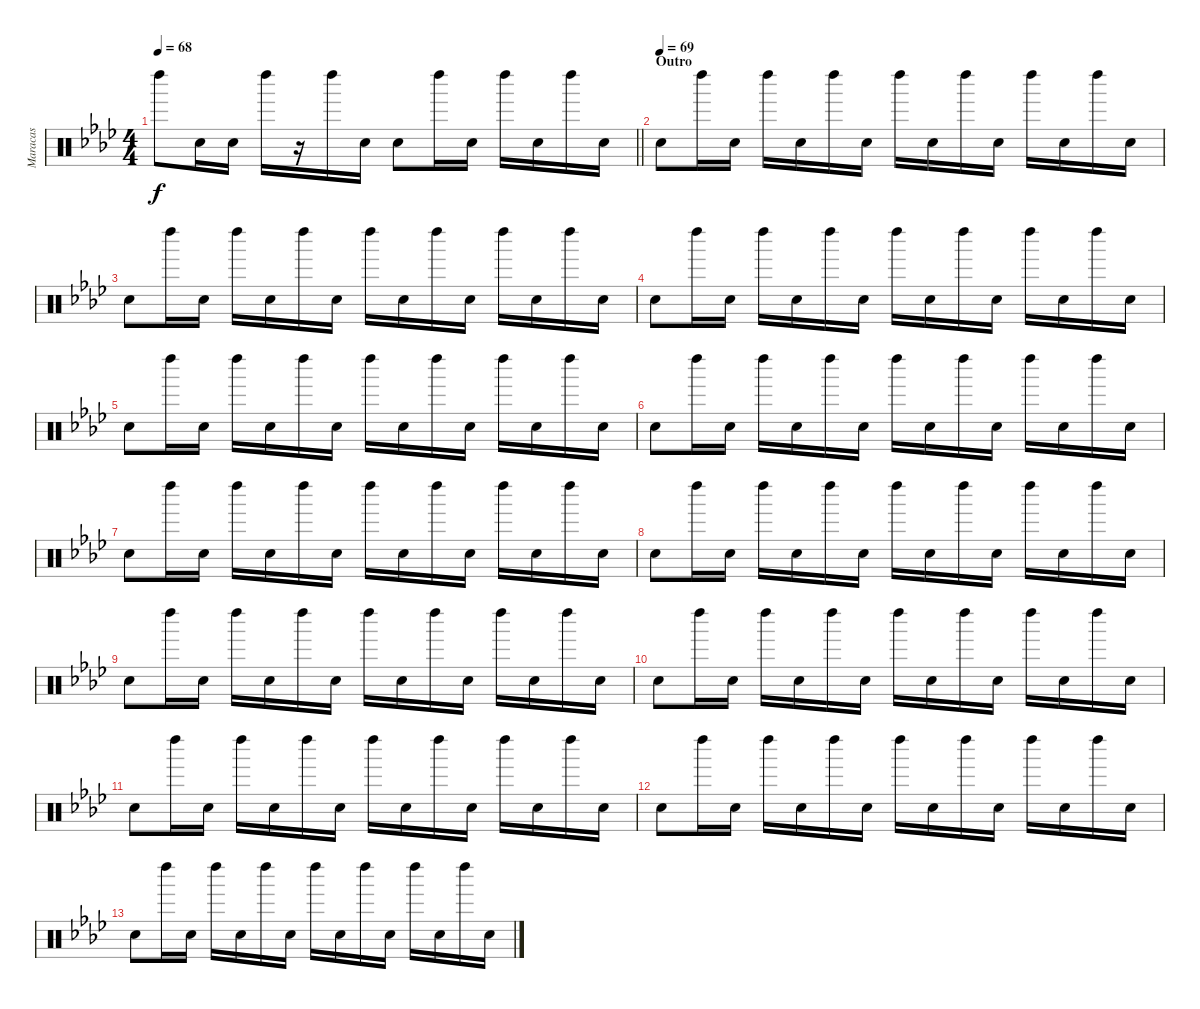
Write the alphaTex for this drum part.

\track ("Maracas" "Maracas") {instrument percussion}
\staff {score}
\articulation defaults
\ts (4 4)
\tempo 68
\clef neutral
\barLineRight lightlight
\ks ab "Left Maraca (hit)".8{dy f} "Snare (hit)".16 "Snare (hit)".16 "Left Maraca (hit)".16
r.16 "Left Maraca (hit)".16 "Snare (hit)".16 "Snare (hit)".8 "Left Maraca (hit)".16 "Snare (hit)".16 "Left Maraca (hit)".16 "Snare (hit)".16 "Left Maraca (hit)".16 "Snare (hit)".16 |
\section ("" "Outro")
\tempo (69)
"Snare (hit)".8 "Left Maraca (hit)".16 "Snare (hit)".16 "Left Maraca (hit)".16 "Snare (hit)".16 "Left Maraca (hit)".16 "Snare (hit)".16 "Left Maraca (hit)".16 "Snare (hit)".16 "Left Maraca (hit)".16 "Snare (hit)".16 "Left Maraca (hit)".16 "Snare (hit)".16 "Left Maraca (hit)".16 "Snare (hit)".16 |
"Snare (hit)".8 "Left Maraca (hit)".16 "Snare (hit)".16 "Left Maraca (hit)".16 "Snare (hit)".16 "Left Maraca (hit)".16 "Snare (hit)".16 "Left Maraca (hit)".16 "Snare (hit)".16 "Left Maraca (hit)".16 "Snare (hit)".16 "Left Maraca (hit)".16 "Snare (hit)".16 "Left Maraca (hit)".16 "Snare (hit)".16 |
"Snare (hit)".8 "Left Maraca (hit)".16 "Snare (hit)".16 "Left Maraca (hit)".16 "Snare (hit)".16 "Left Maraca (hit)".16 "Snare (hit)".16 "Left Maraca (hit)".16 "Snare (hit)".16 "Left Maraca (hit)".16 "Snare (hit)".16 "Left Maraca (hit)".16 "Snare (hit)".16 "Left Maraca (hit)".16 "Snare (hit)".16 |
"Snare (hit)".8 "Left Maraca (hit)".16 "Snare (hit)".16 "Left Maraca (hit)".16 "Snare (hit)".16 "Left Maraca (hit)".16 "Snare (hit)".16 "Left Maraca (hit)".16 "Snare (hit)".16 "Left Maraca (hit)".16 "Snare (hit)".16 "Left Maraca (hit)".16 "Snare (hit)".16 "Left Maraca (hit)".16 "Snare (hit)".16 |
"Snare (hit)".8 "Left Maraca (hit)".16 "Snare (hit)".16 "Left Maraca (hit)".16 "Snare (hit)".16 "Left Maraca (hit)".16 "Snare (hit)".16 "Left Maraca (hit)".16 "Snare (hit)".16 "Left Maraca (hit)".16 "Snare (hit)".16 "Left Maraca (hit)".16 "Snare (hit)".16 "Left Maraca (hit)".16 "Snare (hit)".16 |
"Snare (hit)".8 "Left Maraca (hit)".16 "Snare (hit)".16 "Left Maraca (hit)".16 "Snare (hit)".16 "Left Maraca (hit)".16 "Snare (hit)".16 "Left Maraca (hit)".16 "Snare (hit)".16 "Left Maraca (hit)".16 "Snare (hit)".16 "Left Maraca (hit)".16 "Snare (hit)".16 "Left Maraca (hit)".16 "Snare (hit)".16 |
"Snare (hit)".8 "Left Maraca (hit)".16 "Snare (hit)".16 "Left Maraca (hit)".16 "Snare (hit)".16 "Left Maraca (hit)".16 "Snare (hit)".16 "Left Maraca (hit)".16 "Snare (hit)".16 "Left Maraca (hit)".16 "Snare (hit)".16 "Left Maraca (hit)".16 "Snare (hit)".16 "Left Maraca (hit)".16 "Snare (hit)".16 |
"Snare (hit)".8 "Left Maraca (hit)".16 "Snare (hit)".16 "Left Maraca (hit)".16 "Snare (hit)".16 "Left Maraca (hit)".16 "Snare (hit)".16 "Left Maraca (hit)".16 "Snare (hit)".16 "Left Maraca (hit)".16 "Snare (hit)".16 "Left Maraca (hit)".16 "Snare (hit)".16 "Left Maraca (hit)".16 "Snare (hit)".16 |
"Snare (hit)".8 "Left Maraca (hit)".16 "Snare (hit)".16 "Left Maraca (hit)".16 "Snare (hit)".16 "Left Maraca (hit)".16 "Snare (hit)".16 "Left Maraca (hit)".16 "Snare (hit)".16 "Left Maraca (hit)".16 "Snare (hit)".16 "Left Maraca (hit)".16 "Snare (hit)".16 "Left Maraca (hit)".16 "Snare (hit)".16 |
"Snare (hit)".8 "Left Maraca (hit)".16 "Snare (hit)".16 "Left Maraca (hit)".16 "Snare (hit)".16 "Left Maraca (hit)".16 "Snare (hit)".16 "Left Maraca (hit)".16 "Snare (hit)".16 "Left Maraca (hit)".16 "Snare (hit)".16 "Left Maraca (hit)".16 "Snare (hit)".16 "Left Maraca (hit)".16 "Snare (hit)".16 |
"Snare (hit)".8 "Left Maraca (hit)".16 "Snare (hit)".16 "Left Maraca (hit)".16 "Snare (hit)".16 "Left Maraca (hit)".16 "Snare (hit)".16 "Left Maraca (hit)".16 "Snare (hit)".16 "Left Maraca (hit)".16 "Snare (hit)".16 "Left Maraca (hit)".16 "Snare (hit)".16 "Left Maraca (hit)".16 "Snare (hit)".16 |
"Snare (hit)".8 "Left Maraca (hit)".16 "Snare (hit)".16 "Left Maraca (hit)".16 "Snare (hit)".16 "Left Maraca (hit)".16 "Snare (hit)".16 "Left Maraca (hit)".16 "Snare (hit)".16 "Left Maraca (hit)".16 "Snare (hit)".16 "Left Maraca (hit)".16 "Snare (hit)".16 "Left Maraca (hit)".16 "Snare (hit)".16
